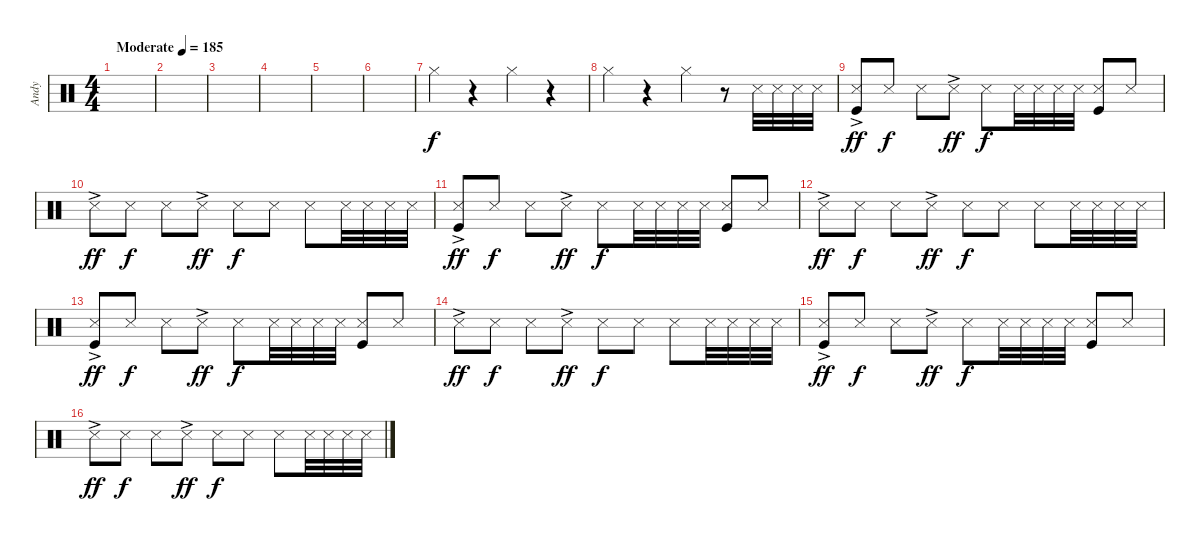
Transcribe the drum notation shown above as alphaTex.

\track ("Andy" "Andy") {instrument percussion}
\staff {score}
\articulation defaults
\ts (4 4)
\tempo (185 "Moderate")
\clef neutral
\ks c
|
|
|
|
|
|
"Hi-Hat (closed)".4 r.4 "Hi-Hat (closed)".4 r.4 |
"Hi-Hat (closed)".4 r.4 "Hi-Hat (closed)".4 r.8 "Snare (side stick) 3".32 "Snare (side stick) 3".32 "Snare (side stick) 3".32 "Snare (side stick) 3".32 |
("Snare (side stick) 3"{ac} "Kick (hit)").8{dy ff} "Snare (side stick) 3".8{dy f} "Snare (side stick) 3".8 "Snare (side stick) 3"{ac}.8{dy ff} "Snare (side stick) 3".8{dy f} "Snare (side stick) 3".32 "Snare (side stick) 3".32 "Snare (side stick) 3".32 "Snare (side stick) 3".32 ("Snare (side stick) 3" "Kick (hit)").8 "Snare (side stick) 3".8 |
"Snare (side stick) 3"{ac}.8{dy ff} "Snare (side stick) 3".8{dy f} "Snare (side stick) 3".8 "Snare (side stick) 3"{ac}.8{dy ff} "Snare (side stick) 3".8{dy f} "Snare (side stick) 3".8 "Snare (side stick) 3".8 "Snare (side stick) 3".32 "Snare (side stick) 3".32 "Snare (side stick) 3".32 "Snare (side stick) 3".32 |
("Snare (side stick) 3"{ac} "Kick (hit)").8{dy ff} "Snare (side stick) 3".8{dy f} "Snare (side stick) 3".8 "Snare (side stick) 3"{ac}.8{dy ff} "Snare (side stick) 3".8{dy f} "Snare (side stick) 3".32 "Snare (side stick) 3".32 "Snare (side stick) 3".32 "Snare (side stick) 3".32 ("Snare (side stick) 3" "Kick (hit)").8 "Snare (side stick) 3".8 |
"Snare (side stick) 3"{ac}.8{dy ff} "Snare (side stick) 3".8{dy f} "Snare (side stick) 3".8 "Snare (side stick) 3"{ac}.8{dy ff} "Snare (side stick) 3".8{dy f} "Snare (side stick) 3".8 "Snare (side stick) 3".8 "Snare (side stick) 3".32 "Snare (side stick) 3".32 "Snare (side stick) 3".32 "Snare (side stick) 3".32 |
("Snare (side stick) 3"{ac} "Kick (hit)").8{dy ff} "Snare (side stick) 3".8{dy f} "Snare (side stick) 3".8 "Snare (side stick) 3"{ac}.8{dy ff} "Snare (side stick) 3".8{dy f} "Snare (side stick) 3".32 "Snare (side stick) 3".32 "Snare (side stick) 3".32 "Snare (side stick) 3".32 ("Snare (side stick) 3" "Kick (hit)").8 "Snare (side stick) 3".8 |
"Snare (side stick) 3"{ac}.8{dy ff} "Snare (side stick) 3".8{dy f} "Snare (side stick) 3".8 "Snare (side stick) 3"{ac}.8{dy ff} "Snare (side stick) 3".8{dy f} "Snare (side stick) 3".8 "Snare (side stick) 3".8 "Snare (side stick) 3".32 "Snare (side stick) 3".32 "Snare (side stick) 3".32 "Snare (side stick) 3".32 |
("Snare (side stick) 3"{ac} "Kick (hit)").8{dy ff} "Snare (side stick) 3".8{dy f} "Snare (side stick) 3".8 "Snare (side stick) 3"{ac}.8{dy ff} "Snare (side stick) 3".8{dy f} "Snare (side stick) 3".32 "Snare (side stick) 3".32 "Snare (side stick) 3".32 "Snare (side stick) 3".32 ("Snare (side stick) 3" "Kick (hit)").8 "Snare (side stick) 3".8 |
"Snare (side stick) 3"{ac}.8{dy ff} "Snare (side stick) 3".8{dy f} "Snare (side stick) 3".8 "Snare (side stick) 3"{ac}.8{dy ff} "Snare (side stick) 3".8{dy f} "Snare (side stick) 3".8 "Snare (side stick) 3".8 "Snare (side stick) 3".32 "Snare (side stick) 3".32 "Snare (side stick) 3".32 "Snare (side stick) 3".32
